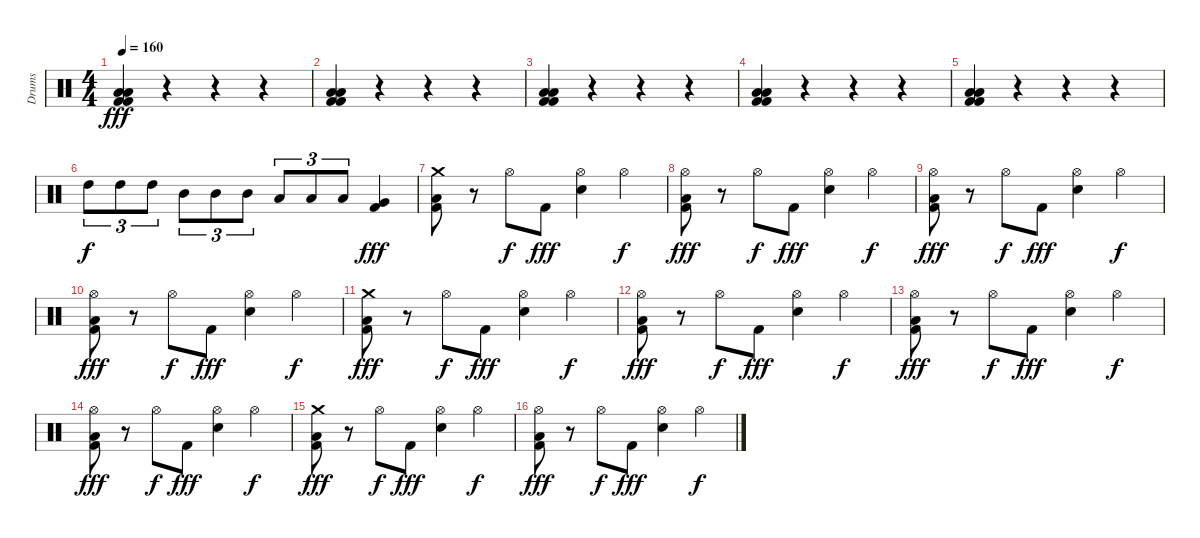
\track ("Drums" "Drums") {instrument percussion}
\staff {score}
\articulation defaults
\ts (4 4)
\tempo 160
\clef neutral
\ks c
("Low Tom (hit)" "Kick (hit) 2" "Kick (hit) 2" "Low Tom (hit)").4{dy fff} r.4 r.4 r.4 |
("Low Tom (hit)" "Kick (hit) 2" "Kick (hit) 2" "Low Tom (hit)").4 r.4 r.4 r.4 |
("Low Tom (hit)" "Kick (hit) 2" "Kick (hit) 2" "Low Tom (hit)").4 r.4 r.4 r.4 |
("Low Tom (hit)" "Kick (hit) 2" "Kick (hit) 2" "Low Tom (hit)").4 r.4 r.4 r.4 |
("Low Tom (hit)" "Kick (hit) 2" "Kick (hit) 2" "Low Tom (hit)").4 r.4 r.4 r.4 |
"High Tom (hit)".8{tu (3 2) dy f} "High Tom (hit)".8{tu (3 2)} "High Tom (hit)".8{tu (3 2)} "Mid Tom (hit)".8{tu (3 2)} "Mid Tom (hit)".8{tu (3 2)} "Mid Tom (hit)".8{tu (3 2)} "Low Tom (hit)".8{tu (3 2)} "Low Tom (hit)".8{tu (3 2)} "Low Tom (hit)".8{tu (3 2)} ("Very Low Tom (hit)" "Kick (hit) 2").4{dy fff} |
("Crash medium (hit)" "Kick (hit) 2" "Low Tom (hit)").8 r.8 "Hi-Hat (open)".8{dy f} "Kick (hit) 2".8{dy fff} ("Hi-Hat (open)" "Electric Snare (hit)").4 "Hi-Hat (open)".4{dy f} |
("Hi-Hat (open)" "Kick (hit) 2" "Low Tom (hit)").8{dy fff} r.8 "Hi-Hat (open)".8{dy f} "Kick (hit) 2".8{dy fff} ("Hi-Hat (open)" "Electric Snare (hit)").4 "Hi-Hat (open)".4{dy f} |
("Hi-Hat (open)" "Kick (hit) 2" "Low Tom (hit)").8{dy fff} r.8 "Hi-Hat (open)".8{dy f} "Kick (hit) 2".8{dy fff} ("Hi-Hat (open)" "Electric Snare (hit)").4 "Hi-Hat (open)".4{dy f} |
("Hi-Hat (open)" "Kick (hit) 2" "Low Tom (hit)").8{dy fff} r.8 "Hi-Hat (open)".8{dy f} "Kick (hit) 2".8{dy fff} ("Hi-Hat (open)" "Electric Snare (hit)").4 "Hi-Hat (open)".4{dy f} |
("Crash medium (hit)" "Kick (hit) 2" "Low Tom (hit)").8{dy fff} r.8 "Hi-Hat (open)".8{dy f} "Kick (hit) 2".8{dy fff} ("Hi-Hat (open)" "Electric Snare (hit)").4 "Hi-Hat (open)".4{dy f} |
("Hi-Hat (open)" "Kick (hit) 2" "Low Tom (hit)").8{dy fff} r.8 "Hi-Hat (open)".8{dy f} "Kick (hit) 2".8{dy fff} ("Hi-Hat (open)" "Electric Snare (hit)").4 "Hi-Hat (open)".4{dy f} |
("Hi-Hat (open)" "Kick (hit) 2" "Low Tom (hit)").8{dy fff} r.8 "Hi-Hat (open)".8{dy f} "Kick (hit) 2".8{dy fff} ("Hi-Hat (open)" "Electric Snare (hit)").4 "Hi-Hat (open)".4{dy f} |
("Hi-Hat (open)" "Kick (hit) 2" "Low Tom (hit)").8{dy fff} r.8 "Hi-Hat (open)".8{dy f} "Kick (hit) 2".8{dy fff} ("Hi-Hat (open)" "Electric Snare (hit)").4 "Hi-Hat (open)".4{dy f} |
("Crash medium (hit)" "Kick (hit) 2" "Low Tom (hit)").8{dy fff} r.8 "Hi-Hat (open)".8{dy f} "Kick (hit) 2".8{dy fff} ("Hi-Hat (open)" "Electric Snare (hit)").4 "Hi-Hat (open)".4{dy f} |
("Hi-Hat (open)" "Kick (hit) 2" "Low Tom (hit)").8{dy fff} r.8 "Hi-Hat (open)".8{dy f} "Kick (hit) 2".8{dy fff} ("Hi-Hat (open)" "Electric Snare (hit)").4 "Hi-Hat (open)".4{dy f}
